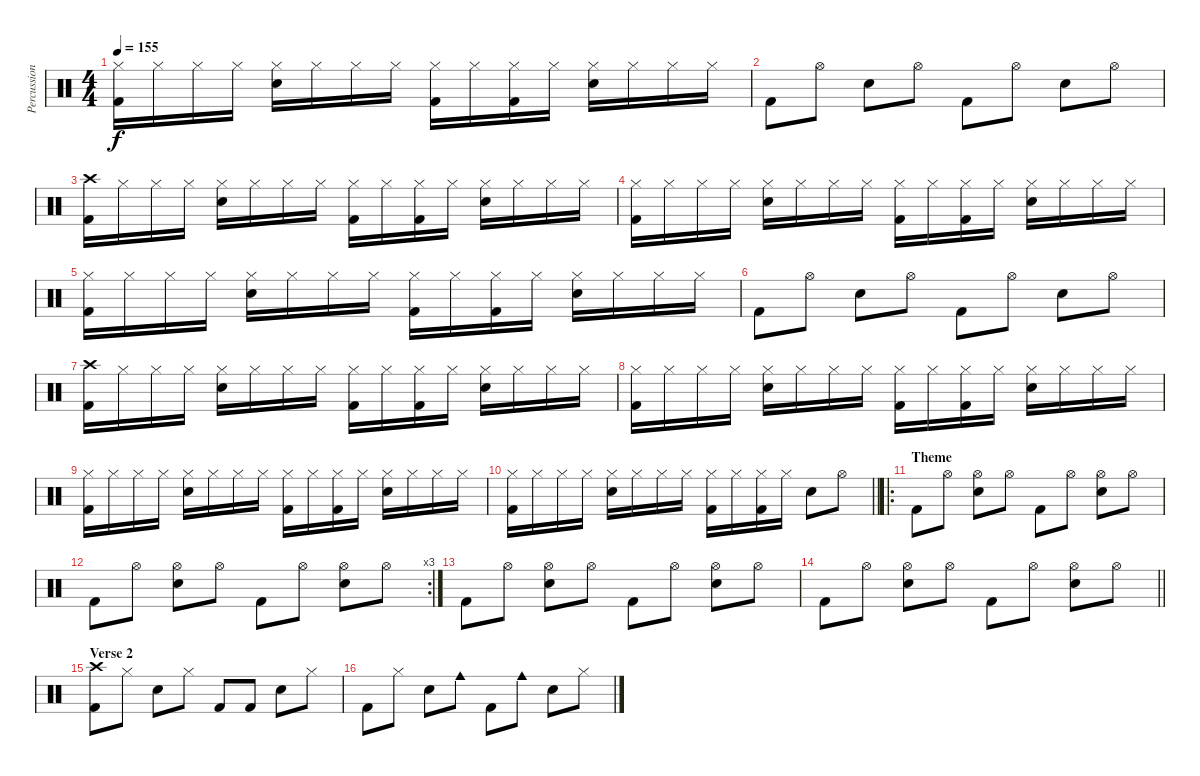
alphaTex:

\track ("Percussioni" "Percussion") {instrument percussion}
\staff {score}
\articulation defaults
\ts (4 4)
\tempo 155
\clef neutral
\ks c
("Hi-Hat (closed)" "Kick (hit) 2").16{dy f} "Hi-Hat (closed)".16 "Hi-Hat (closed)".16 "Hi-Hat (closed)".16 ("Hi-Hat (closed)" "Snare (hit) 2").16 "Hi-Hat (closed)".16 "Hi-Hat (closed)".16 "Hi-Hat (closed)".16 ("Hi-Hat (closed)" "Kick (hit) 2").16 "Hi-Hat (closed)".16 ("Hi-Hat (closed)" "Kick (hit) 2").16 "Hi-Hat (closed)".16 ("Hi-Hat (closed)" "Snare (hit) 2").16 "Hi-Hat (closed)".16 "Hi-Hat (closed)".16 "Hi-Hat (closed)".16 |
"Kick (hit) 2".8 "Hi-Hat (open)".8 "Snare (hit) 2".8 "Hi-Hat (open)".8 "Kick (hit) 2".8 "Hi-Hat (open)".8 "Snare (hit) 2".8 "Hi-Hat (open)".8 |
("Crash high (hit)" "Kick (hit) 2").16 "Hi-Hat (closed)".16 "Hi-Hat (closed)".16 "Hi-Hat (closed)".16 ("Hi-Hat (closed)" "Snare (hit) 2").16 "Hi-Hat (closed)".16 "Hi-Hat (closed)".16 "Hi-Hat (closed)".16 ("Hi-Hat (closed)" "Kick (hit) 2").16 "Hi-Hat (closed)".16 ("Hi-Hat (closed)" "Kick (hit) 2").16 "Hi-Hat (closed)".16 ("Hi-Hat (closed)" "Snare (hit) 2").16 "Hi-Hat (closed)".16 "Hi-Hat (closed)".16 "Hi-Hat (closed)".16 |
("Hi-Hat (closed)" "Kick (hit) 2").16 "Hi-Hat (closed)".16 "Hi-Hat (closed)".16 "Hi-Hat (closed)".16 ("Hi-Hat (closed)" "Snare (hit) 2").16 "Hi-Hat (closed)".16 "Hi-Hat (closed)".16 "Hi-Hat (closed)".16 ("Hi-Hat (closed)" "Kick (hit) 2").16 "Hi-Hat (closed)".16 ("Hi-Hat (closed)" "Kick (hit) 2").16 "Hi-Hat (closed)".16 ("Hi-Hat (closed)" "Snare (hit) 2").16 "Hi-Hat (closed)".16 "Hi-Hat (closed)".16 "Hi-Hat (closed)".16 |
("Hi-Hat (closed)" "Kick (hit) 2").16 "Hi-Hat (closed)".16 "Hi-Hat (closed)".16 "Hi-Hat (closed)".16 ("Hi-Hat (closed)" "Snare (hit) 2").16 "Hi-Hat (closed)".16 "Hi-Hat (closed)".16 "Hi-Hat (closed)".16 ("Hi-Hat (closed)" "Kick (hit) 2").16 "Hi-Hat (closed)".16 ("Hi-Hat (closed)" "Kick (hit) 2").16 "Hi-Hat (closed)".16 ("Hi-Hat (closed)" "Snare (hit) 2").16 "Hi-Hat (closed)".16 "Hi-Hat (closed)".16 "Hi-Hat (closed)".16 |
"Kick (hit) 2".8 "Hi-Hat (open)".8 "Snare (hit) 2".8 "Hi-Hat (open)".8 "Kick (hit) 2".8 "Hi-Hat (open)".8 "Snare (hit) 2".8 "Hi-Hat (open)".8 |
("Crash high (hit)" "Kick (hit) 2").16 "Hi-Hat (closed)".16 "Hi-Hat (closed)".16 "Hi-Hat (closed)".16 ("Hi-Hat (closed)" "Snare (hit) 2").16 "Hi-Hat (closed)".16 "Hi-Hat (closed)".16 "Hi-Hat (closed)".16 ("Hi-Hat (closed)" "Kick (hit) 2").16 "Hi-Hat (closed)".16 ("Hi-Hat (closed)" "Kick (hit) 2").16 "Hi-Hat (closed)".16 ("Hi-Hat (closed)" "Snare (hit) 2").16 "Hi-Hat (closed)".16 "Hi-Hat (closed)".16 "Hi-Hat (closed)".16 |
("Hi-Hat (closed)" "Kick (hit) 2").16 "Hi-Hat (closed)".16 "Hi-Hat (closed)".16 "Hi-Hat (closed)".16 ("Hi-Hat (closed)" "Snare (hit) 2").16 "Hi-Hat (closed)".16 "Hi-Hat (closed)".16 "Hi-Hat (closed)".16 ("Hi-Hat (closed)" "Kick (hit) 2").16 "Hi-Hat (closed)".16 ("Hi-Hat (closed)" "Kick (hit) 2").16 "Hi-Hat (closed)".16 ("Hi-Hat (closed)" "Snare (hit) 2").16 "Hi-Hat (closed)".16 "Hi-Hat (closed)".16 "Hi-Hat (closed)".16 |
("Hi-Hat (closed)" "Kick (hit) 2").16 "Hi-Hat (closed)".16 "Hi-Hat (closed)".16 "Hi-Hat (closed)".16 ("Hi-Hat (closed)" "Snare (hit) 2").16 "Hi-Hat (closed)".16 "Hi-Hat (closed)".16 "Hi-Hat (closed)".16 ("Hi-Hat (closed)" "Kick (hit) 2").16 "Hi-Hat (closed)".16 ("Hi-Hat (closed)" "Kick (hit) 2").16 "Hi-Hat (closed)".16 ("Hi-Hat (closed)" "Snare (hit) 2").16 "Hi-Hat (closed)".16 "Hi-Hat (closed)".16 "Hi-Hat (closed)".16 |
\barLineRight lightlight
("Hi-Hat (closed)" "Kick (hit) 2").16 "Hi-Hat (closed)".16 "Hi-Hat (closed)".16 "Hi-Hat (closed)".16 ("Hi-Hat (closed)" "Snare (hit) 2").16 "Hi-Hat (closed)".16 "Hi-Hat (closed)".16 "Hi-Hat (closed)".16 ("Hi-Hat (closed)" "Kick (hit) 2").16 "Hi-Hat (closed)".16 ("Hi-Hat (closed)" "Kick (hit) 2").16 "Hi-Hat (closed)".16 "Snare (hit) 2".8 "Hi-Hat (open)".8 |
\ro
\section ("" "Theme")
"Kick (hit) 2".8 "Hi-Hat (open)".8 ("Hi-Hat (open)" "Snare (hit) 2").8 "Hi-Hat (open)".8 "Kick (hit) 2".8 "Hi-Hat (open)".8 ("Hi-Hat (open)" "Snare (hit) 2").8 "Hi-Hat (open)".8 |
\rc 3 "Kick (hit) 2".8 "Hi-Hat (open)".8
("Hi-Hat (open)" "Snare (hit) 2").8 "Hi-Hat (open)".8 "Kick (hit) 2".8 "Hi-Hat (open)".8 ("Hi-Hat (open)" "Snare (hit) 2").8 "Hi-Hat (open)".8 |
"Kick (hit) 2".8 "Hi-Hat (open)".8 ("Hi-Hat (open)" "Snare (hit) 2").8 "Hi-Hat (open)".8 "Kick (hit) 2".8 "Hi-Hat (open)".8 ("Hi-Hat (open)" "Snare (hit) 2").8 "Hi-Hat (open)".8 |
\barLineRight lightlight "Kick (hit) 2".8 "Hi-Hat (open)".8
("Hi-Hat (open)" "Snare (hit) 2").8 "Hi-Hat (open)".8 "Kick (hit) 2".8 "Hi-Hat (open)".8 ("Hi-Hat (open)" "Snare (hit) 2").8 "Hi-Hat (open)".8 |
\section ("" "Verse 2")
("Crash high (hit)" "Kick (hit) 2").8 "Hi-Hat (closed)".8 "Snare (hit) 2".8 "Hi-Hat (closed)".8 "Kick (hit) 2".8 "Kick (hit) 2".8 "Snare (hit) 2".8 "Hi-Hat (closed)".8 |
"Kick (hit) 2".8 "Hi-Hat (closed)".8 "Snare (hit) 2".8 "Cowbell medium (hit)".8 "Kick (hit) 2".8 "Cowbell medium (hit)".8 "Snare (hit) 2".8 "Hi-Hat (closed)".8
